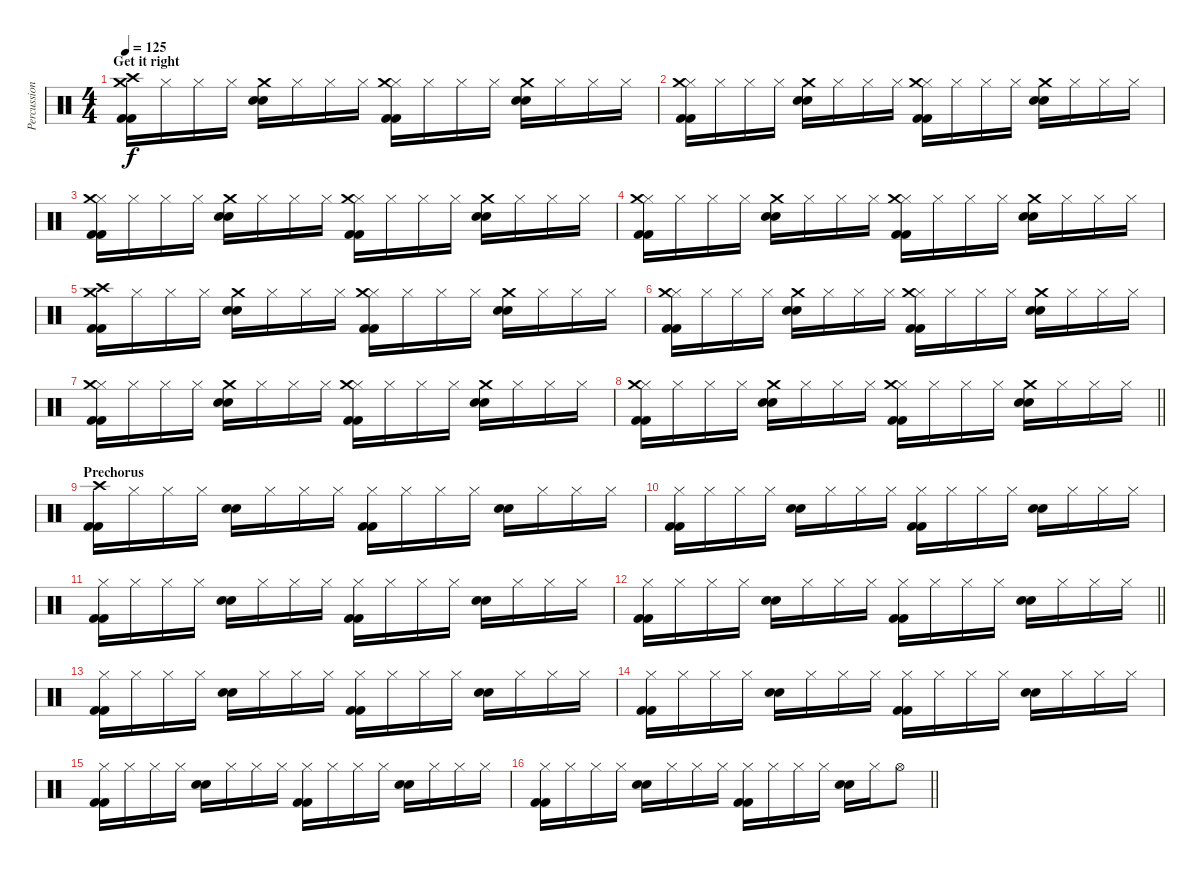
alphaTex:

\track ("Percussion" "Percussion") {instrument percussion}
\staff {score}
\articulation defaults
\ts (4 4)
\section ("" "Get it right")
\tempo 125
\clef neutral
\ks c
("Crash high (hit)" "Crash medium (hit)" "Kick (hit) 2" "Kick (hit) 2").16{dy f} "Hi-Hat (closed)".16 "Hi-Hat (closed)".16 "Hi-Hat (closed)".16 ("Crash medium (hit)" "Electric Snare (hit)" "Electric Snare (hit)").16 "Hi-Hat (closed)".16 "Hi-Hat (closed)".16 "Hi-Hat (closed)".16 ("Hi-Hat (closed)" "Crash medium (hit)" "Kick (hit) 2" "Kick (hit) 2").16 "Hi-Hat (closed)".16 "Hi-Hat (closed)".16 "Hi-Hat (closed)".16 ("Crash medium (hit)" "Electric Snare (hit)" "Electric Snare (hit)").16 "Hi-Hat (closed)".16 "Hi-Hat (closed)".16 "Hi-Hat (closed)".16 |
("Hi-Hat (closed)" "Crash medium (hit)" "Kick (hit) 2" "Kick (hit) 2").16 "Hi-Hat (closed)".16 "Hi-Hat (closed)".16 "Hi-Hat (closed)".16 ("Crash medium (hit)" "Electric Snare (hit)" "Electric Snare (hit)").16 "Hi-Hat (closed)".16 "Hi-Hat (closed)".16 "Hi-Hat (closed)".16 ("Hi-Hat (closed)" "Crash medium (hit)" "Kick (hit) 2" "Kick (hit) 2").16 "Hi-Hat (closed)".16 "Hi-Hat (closed)".16 "Hi-Hat (closed)".16 ("Crash medium (hit)" "Electric Snare (hit)" "Electric Snare (hit)").16 "Hi-Hat (closed)".16 "Hi-Hat (closed)".16 "Hi-Hat (closed)".16 |
("Hi-Hat (closed)" "Crash medium (hit)" "Kick (hit) 2" "Kick (hit) 2").16 "Hi-Hat (closed)".16 "Hi-Hat (closed)".16 "Hi-Hat (closed)".16 ("Crash medium (hit)" "Electric Snare (hit)" "Electric Snare (hit)").16 "Hi-Hat (closed)".16 "Hi-Hat (closed)".16 "Hi-Hat (closed)".16 ("Hi-Hat (closed)" "Crash medium (hit)" "Kick (hit) 2" "Kick (hit) 2").16 "Hi-Hat (closed)".16 "Hi-Hat (closed)".16 "Hi-Hat (closed)".16 ("Crash medium (hit)" "Electric Snare (hit)" "Electric Snare (hit)").16 "Hi-Hat (closed)".16 "Hi-Hat (closed)".16 "Hi-Hat (closed)".16 |
("Hi-Hat (closed)" "Crash medium (hit)" "Kick (hit) 2" "Kick (hit) 2").16 "Hi-Hat (closed)".16 "Hi-Hat (closed)".16 "Hi-Hat (closed)".16 ("Crash medium (hit)" "Electric Snare (hit)" "Electric Snare (hit)").16 "Hi-Hat (closed)".16 "Hi-Hat (closed)".16 "Hi-Hat (closed)".16 ("Hi-Hat (closed)" "Crash medium (hit)" "Kick (hit) 2" "Kick (hit) 2").16 "Hi-Hat (closed)".16 "Hi-Hat (closed)".16 "Hi-Hat (closed)".16 ("Crash medium (hit)" "Electric Snare (hit)" "Electric Snare (hit)").16 "Hi-Hat (closed)".16 "Hi-Hat (closed)".16 "Hi-Hat (closed)".16 |
("Crash high (hit)" "Crash medium (hit)" "Kick (hit) 2" "Kick (hit) 2").16 "Hi-Hat (closed)".16 "Hi-Hat (closed)".16 "Hi-Hat (closed)".16 ("Crash medium (hit)" "Electric Snare (hit)" "Electric Snare (hit)").16 "Hi-Hat (closed)".16 "Hi-Hat (closed)".16 "Hi-Hat (closed)".16 ("Hi-Hat (closed)" "Crash medium (hit)" "Kick (hit) 2" "Kick (hit) 2").16 "Hi-Hat (closed)".16 "Hi-Hat (closed)".16 "Hi-Hat (closed)".16 ("Crash medium (hit)" "Electric Snare (hit)" "Electric Snare (hit)").16 "Hi-Hat (closed)".16 "Hi-Hat (closed)".16 "Hi-Hat (closed)".16 |
("Hi-Hat (closed)" "Crash medium (hit)" "Kick (hit) 2" "Kick (hit) 2").16 "Hi-Hat (closed)".16 "Hi-Hat (closed)".16 "Hi-Hat (closed)".16 ("Crash medium (hit)" "Electric Snare (hit)" "Electric Snare (hit)").16 "Hi-Hat (closed)".16 "Hi-Hat (closed)".16 "Hi-Hat (closed)".16 ("Hi-Hat (closed)" "Crash medium (hit)" "Kick (hit) 2" "Kick (hit) 2").16 "Hi-Hat (closed)".16 "Hi-Hat (closed)".16 "Hi-Hat (closed)".16 ("Crash medium (hit)" "Electric Snare (hit)" "Electric Snare (hit)").16 "Hi-Hat (closed)".16 "Hi-Hat (closed)".16 "Hi-Hat (closed)".16 |
("Hi-Hat (closed)" "Crash medium (hit)" "Kick (hit) 2" "Kick (hit) 2").16 "Hi-Hat (closed)".16 "Hi-Hat (closed)".16 "Hi-Hat (closed)".16 ("Crash medium (hit)" "Electric Snare (hit)" "Electric Snare (hit)").16 "Hi-Hat (closed)".16 "Hi-Hat (closed)".16 "Hi-Hat (closed)".16 ("Hi-Hat (closed)" "Crash medium (hit)" "Kick (hit) 2" "Kick (hit) 2").16 "Hi-Hat (closed)".16 "Hi-Hat (closed)".16 "Hi-Hat (closed)".16 ("Crash medium (hit)" "Electric Snare (hit)" "Electric Snare (hit)").16 "Hi-Hat (closed)".16 "Hi-Hat (closed)".16 "Hi-Hat (closed)".16 |
\barLineRight lightlight
("Hi-Hat (closed)" "Crash medium (hit)" "Kick (hit) 2" "Kick (hit) 2").16 "Hi-Hat (closed)".16 "Hi-Hat (closed)".16 "Hi-Hat (closed)".16 ("Crash medium (hit)" "Electric Snare (hit)" "Electric Snare (hit)").16 "Hi-Hat (closed)".16 "Hi-Hat (closed)".16 "Hi-Hat (closed)".16 ("Hi-Hat (closed)" "Crash medium (hit)" "Kick (hit) 2" "Kick (hit) 2").16 "Hi-Hat (closed)".16 "Hi-Hat (closed)".16 "Hi-Hat (closed)".16 ("Crash medium (hit)" "Electric Snare (hit)" "Electric Snare (hit)").16 "Hi-Hat (closed)".16 "Hi-Hat (closed)".16 "Hi-Hat (closed)".16 |
\section ("" "Prechorus")
("Crash high (hit)" "Kick (hit) 2" "Kick (hit) 2").16 "Hi-Hat (closed)".16 "Hi-Hat (closed)".16 "Hi-Hat (closed)".16 ("Electric Snare (hit)" "Electric Snare (hit)").16 "Hi-Hat (closed)".16 "Hi-Hat (closed)".16 "Hi-Hat (closed)".16 ("Hi-Hat (closed)" "Kick (hit) 2" "Kick (hit) 2").16 "Hi-Hat (closed)".16 "Hi-Hat (closed)".16 "Hi-Hat (closed)".16 ("Electric Snare (hit)" "Electric Snare (hit)").16 "Hi-Hat (closed)".16 "Hi-Hat (closed)".16 "Hi-Hat (closed)".16 |
("Hi-Hat (closed)" "Kick (hit) 2" "Kick (hit) 2").16 "Hi-Hat (closed)".16 "Hi-Hat (closed)".16 "Hi-Hat (closed)".16 ("Electric Snare (hit)" "Electric Snare (hit)").16 "Hi-Hat (closed)".16 "Hi-Hat (closed)".16 "Hi-Hat (closed)".16 ("Hi-Hat (closed)" "Kick (hit) 2" "Kick (hit) 2").16 "Hi-Hat (closed)".16 "Hi-Hat (closed)".16 "Hi-Hat (closed)".16 ("Electric Snare (hit)" "Electric Snare (hit)").16 "Hi-Hat (closed)".16 "Hi-Hat (closed)".16 "Hi-Hat (closed)".16 |
("Hi-Hat (closed)" "Kick (hit) 2" "Kick (hit) 2").16 "Hi-Hat (closed)".16 "Hi-Hat (closed)".16 "Hi-Hat (closed)".16 ("Electric Snare (hit)" "Electric Snare (hit)").16 "Hi-Hat (closed)".16 "Hi-Hat (closed)".16 "Hi-Hat (closed)".16 ("Hi-Hat (closed)" "Kick (hit) 2" "Kick (hit) 2").16 "Hi-Hat (closed)".16 "Hi-Hat (closed)".16 "Hi-Hat (closed)".16 ("Electric Snare (hit)" "Electric Snare (hit)").16 "Hi-Hat (closed)".16 "Hi-Hat (closed)".16 "Hi-Hat (closed)".16 |
\barLineRight lightlight
("Hi-Hat (closed)" "Kick (hit) 2" "Kick (hit) 2").16 "Hi-Hat (closed)".16 "Hi-Hat (closed)".16 "Hi-Hat (closed)".16 ("Electric Snare (hit)" "Electric Snare (hit)").16 "Hi-Hat (closed)".16 "Hi-Hat (closed)".16 "Hi-Hat (closed)".16 ("Hi-Hat (closed)" "Kick (hit) 2" "Kick (hit) 2").16 "Hi-Hat (closed)".16 "Hi-Hat (closed)".16 "Hi-Hat (closed)".16 ("Electric Snare (hit)" "Electric Snare (hit)").16 "Hi-Hat (closed)".16 "Hi-Hat (closed)".16 "Hi-Hat (closed)".16 |
("Hi-Hat (closed)" "Kick (hit) 2" "Kick (hit) 2").16 "Hi-Hat (closed)".16 "Hi-Hat (closed)".16 "Hi-Hat (closed)".16 ("Electric Snare (hit)" "Electric Snare (hit)").16 "Hi-Hat (closed)".16 "Hi-Hat (closed)".16 "Hi-Hat (closed)".16 ("Hi-Hat (closed)" "Kick (hit) 2" "Kick (hit) 2").16 "Hi-Hat (closed)".16 "Hi-Hat (closed)".16 "Hi-Hat (closed)".16 ("Electric Snare (hit)" "Electric Snare (hit)").16 "Hi-Hat (closed)".16 "Hi-Hat (closed)".16 "Hi-Hat (closed)".16 |
("Hi-Hat (closed)" "Kick (hit) 2" "Kick (hit) 2").16 "Hi-Hat (closed)".16 "Hi-Hat (closed)".16 "Hi-Hat (closed)".16 ("Electric Snare (hit)" "Electric Snare (hit)").16 "Hi-Hat (closed)".16 "Hi-Hat (closed)".16 "Hi-Hat (closed)".16 ("Hi-Hat (closed)" "Kick (hit) 2" "Kick (hit) 2").16 "Hi-Hat (closed)".16 "Hi-Hat (closed)".16 "Hi-Hat (closed)".16 ("Electric Snare (hit)" "Electric Snare (hit)").16 "Hi-Hat (closed)".16 "Hi-Hat (closed)".16 "Hi-Hat (closed)".16 |
("Hi-Hat (closed)" "Kick (hit) 2" "Kick (hit) 2").16 "Hi-Hat (closed)".16 "Hi-Hat (closed)".16 "Hi-Hat (closed)".16 ("Electric Snare (hit)" "Electric Snare (hit)").16 "Hi-Hat (closed)".16 "Hi-Hat (closed)".16 "Hi-Hat (closed)".16 ("Hi-Hat (closed)" "Kick (hit) 2" "Kick (hit) 2").16 "Hi-Hat (closed)".16 "Hi-Hat (closed)".16 "Hi-Hat (closed)".16 ("Electric Snare (hit)" "Electric Snare (hit)").16 "Hi-Hat (closed)".16 "Hi-Hat (closed)".16 "Hi-Hat (closed)".16 |
\barLineRight lightlight
("Hi-Hat (closed)" "Kick (hit) 2" "Kick (hit) 2").16 "Hi-Hat (closed)".16 "Hi-Hat (closed)".16 "Hi-Hat (closed)".16 ("Electric Snare (hit)" "Electric Snare (hit)").16 "Hi-Hat (closed)".16 "Hi-Hat (closed)".16 "Hi-Hat (closed)".16 ("Hi-Hat (closed)" "Kick (hit) 2" "Kick (hit) 2").16 "Hi-Hat (closed)".16 "Hi-Hat (closed)".16 "Hi-Hat (closed)".16 ("Electric Snare (hit)" "Electric Snare (hit)").16 "Hi-Hat (closed)".16 "Hi-Hat (open)".8
